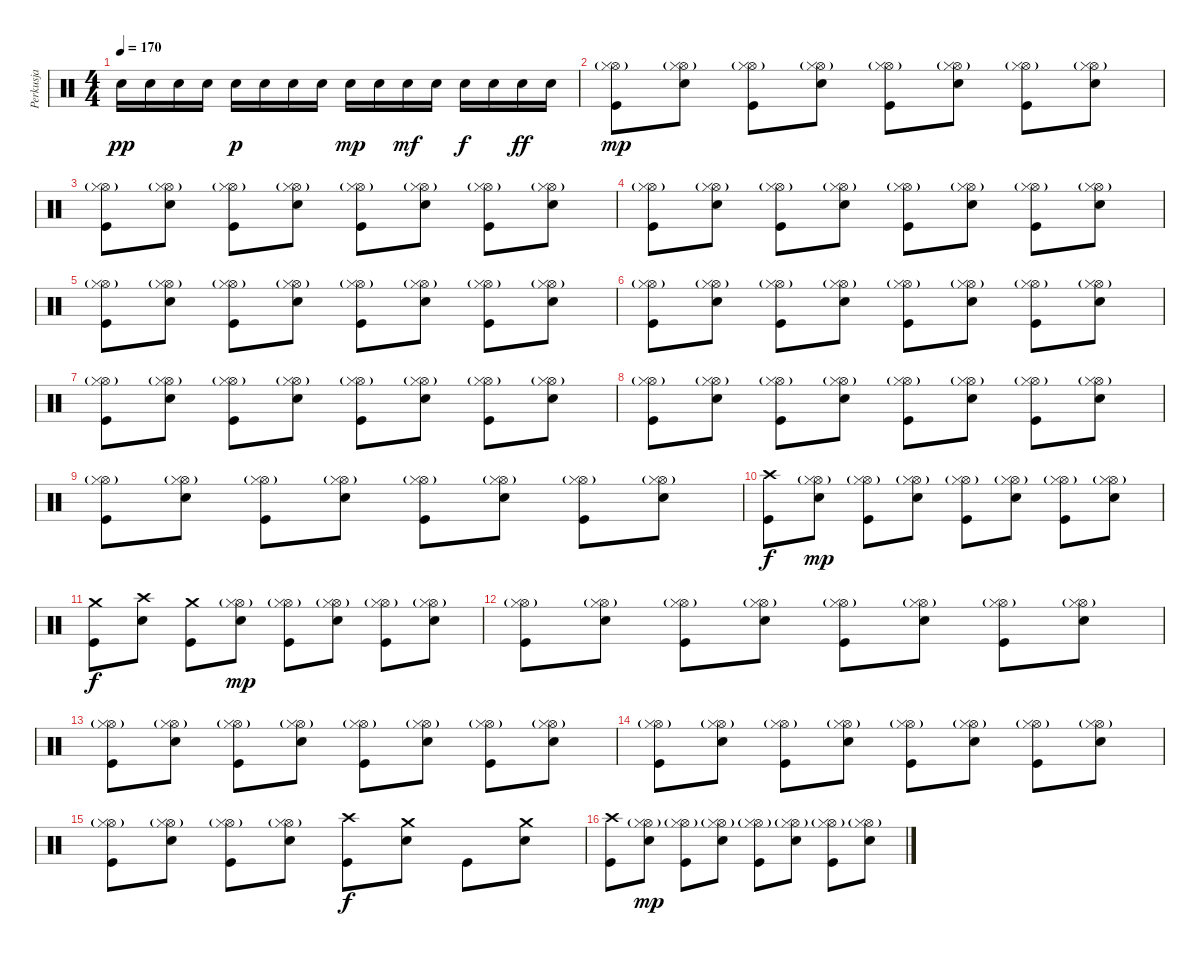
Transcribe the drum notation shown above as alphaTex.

\track ("Perkusja" "Perkusja") {instrument percussion}
\staff {score}
\articulation defaults
\ts (4 4)
\tempo 170
\clef neutral
\ks c "Electric Snare (hit)".16{dy pp} "Electric Snare (hit)".16 "Electric Snare (hit)".16 "Electric Snare (hit)".16 "Electric Snare (hit)".16{dy p} "Electric Snare (hit)".16 "Electric Snare (hit)".16 "Electric Snare (hit)".16 "Electric Snare (hit)".16{dy mp} "Electric Snare (hit)".16 "Electric Snare (hit)".16{dy mf} "Electric Snare (hit)".16 "Electric Snare (hit)".16{dy f} "Electric Snare (hit)".16 "Electric Snare (hit)".16{dy ff} "Electric Snare (hit)".16
|
("Hi-Hat (open)"{g} "Hi-Hat (closed)"{g} "Kick (hit)").8{dy mp} ("Hi-Hat (open)"{g} "Hi-Hat (closed)"{g} "Electric Snare (hit)").8 ("Hi-Hat (open)"{g} "Hi-Hat (closed)"{g} "Kick (hit)").8 ("Hi-Hat (open)"{g} "Hi-Hat (closed)"{g} "Electric Snare (hit)").8 ("Hi-Hat (open)"{g} "Hi-Hat (closed)"{g} "Kick (hit)").8 ("Hi-Hat (open)"{g} "Hi-Hat (closed)"{g} "Electric Snare (hit)").8 ("Hi-Hat (open)"{g} "Hi-Hat (closed)"{g} "Kick (hit)").8 ("Hi-Hat (open)"{g} "Hi-Hat (closed)"{g} "Electric Snare (hit)").8 |
("Hi-Hat (open)"{g} "Hi-Hat (closed)"{g} "Kick (hit)").8 ("Hi-Hat (open)"{g} "Hi-Hat (closed)"{g} "Electric Snare (hit)").8 ("Hi-Hat (open)"{g} "Hi-Hat (closed)"{g} "Kick (hit)").8 ("Hi-Hat (open)"{g} "Hi-Hat (closed)"{g} "Electric Snare (hit)").8 ("Hi-Hat (open)"{g} "Hi-Hat (closed)"{g} "Kick (hit)").8 ("Hi-Hat (open)"{g} "Hi-Hat (closed)"{g} "Electric Snare (hit)").8 ("Hi-Hat (open)"{g} "Hi-Hat (closed)"{g} "Kick (hit)").8 ("Hi-Hat (open)"{g} "Hi-Hat (closed)"{g} "Electric Snare (hit)").8 |
("Hi-Hat (open)"{g} "Hi-Hat (closed)"{g} "Kick (hit)").8 ("Hi-Hat (open)"{g} "Hi-Hat (closed)"{g} "Electric Snare (hit)").8 ("Hi-Hat (open)"{g} "Hi-Hat (closed)"{g} "Kick (hit)").8 ("Hi-Hat (open)"{g} "Hi-Hat (closed)"{g} "Electric Snare (hit)").8 ("Hi-Hat (open)"{g} "Hi-Hat (closed)"{g} "Kick (hit)").8 ("Hi-Hat (open)"{g} "Hi-Hat (closed)"{g} "Electric Snare (hit)").8 ("Hi-Hat (open)"{g} "Hi-Hat (closed)"{g} "Kick (hit)").8 ("Hi-Hat (open)"{g} "Hi-Hat (closed)"{g} "Electric Snare (hit)").8 |
("Hi-Hat (open)"{g} "Hi-Hat (closed)"{g} "Kick (hit)").8 ("Hi-Hat (open)"{g} "Hi-Hat (closed)"{g} "Electric Snare (hit)").8 ("Hi-Hat (open)"{g} "Hi-Hat (closed)"{g} "Kick (hit)").8 ("Hi-Hat (open)"{g} "Hi-Hat (closed)"{g} "Electric Snare (hit)").8 ("Hi-Hat (open)"{g} "Hi-Hat (closed)"{g} "Kick (hit)").8 ("Hi-Hat (open)"{g} "Hi-Hat (closed)"{g} "Electric Snare (hit)").8 ("Hi-Hat (open)"{g} "Hi-Hat (closed)"{g} "Kick (hit)").8 ("Hi-Hat (open)"{g} "Hi-Hat (closed)"{g} "Electric Snare (hit)").8 |
("Hi-Hat (open)"{g} "Hi-Hat (closed)"{g} "Kick (hit)").8 ("Hi-Hat (open)"{g} "Hi-Hat (closed)"{g} "Electric Snare (hit)").8 ("Hi-Hat (open)"{g} "Hi-Hat (closed)"{g} "Kick (hit)").8 ("Hi-Hat (open)"{g} "Hi-Hat (closed)"{g} "Electric Snare (hit)").8 ("Hi-Hat (open)"{g} "Hi-Hat (closed)"{g} "Kick (hit)").8 ("Hi-Hat (open)"{g} "Hi-Hat (closed)"{g} "Electric Snare (hit)").8 ("Hi-Hat (open)"{g} "Hi-Hat (closed)"{g} "Kick (hit)").8 ("Hi-Hat (open)"{g} "Hi-Hat (closed)"{g} "Electric Snare (hit)").8 |
("Hi-Hat (open)"{g} "Hi-Hat (closed)"{g} "Kick (hit)").8 ("Hi-Hat (open)"{g} "Hi-Hat (closed)"{g} "Electric Snare (hit)").8 ("Hi-Hat (open)"{g} "Hi-Hat (closed)"{g} "Kick (hit)").8 ("Hi-Hat (open)"{g} "Hi-Hat (closed)"{g} "Electric Snare (hit)").8 ("Hi-Hat (open)"{g} "Hi-Hat (closed)"{g} "Kick (hit)").8 ("Hi-Hat (open)"{g} "Hi-Hat (closed)"{g} "Electric Snare (hit)").8 ("Hi-Hat (open)"{g} "Hi-Hat (closed)"{g} "Kick (hit)").8 ("Hi-Hat (open)"{g} "Hi-Hat (closed)"{g} "Electric Snare (hit)").8 |
("Hi-Hat (open)"{g} "Hi-Hat (closed)"{g} "Kick (hit)").8 ("Hi-Hat (open)"{g} "Hi-Hat (closed)"{g} "Electric Snare (hit)").8 ("Hi-Hat (open)"{g} "Hi-Hat (closed)"{g} "Kick (hit)").8 ("Hi-Hat (open)"{g} "Hi-Hat (closed)"{g} "Electric Snare (hit)").8 ("Hi-Hat (open)"{g} "Hi-Hat (closed)"{g} "Kick (hit)").8 ("Hi-Hat (open)"{g} "Hi-Hat (closed)"{g} "Electric Snare (hit)").8 ("Hi-Hat (open)"{g} "Hi-Hat (closed)"{g} "Kick (hit)").8 ("Hi-Hat (open)"{g} "Hi-Hat (closed)"{g} "Electric Snare (hit)").8 |
("Hi-Hat (open)"{g} "Hi-Hat (closed)"{g} "Kick (hit)").8 ("Hi-Hat (open)"{g} "Hi-Hat (closed)"{g} "Electric Snare (hit)").8 ("Hi-Hat (open)"{g} "Hi-Hat (closed)"{g} "Kick (hit)").8 ("Hi-Hat (open)"{g} "Hi-Hat (closed)"{g} "Electric Snare (hit)").8 ("Hi-Hat (open)"{g} "Hi-Hat (closed)"{g} "Kick (hit)").8 ("Hi-Hat (open)"{g} "Hi-Hat (closed)"{g} "Electric Snare (hit)").8 ("Hi-Hat (open)"{g} "Hi-Hat (closed)"{g} "Kick (hit)").8 ("Hi-Hat (open)"{g} "Hi-Hat (closed)"{g} "Electric Snare (hit)").8 |
("Crash high (hit)" "Kick (hit)").8{dy f} ("Hi-Hat (open)"{g} "Hi-Hat (closed)"{g} "Electric Snare (hit)").8{dy mp} ("Hi-Hat (open)"{g} "Hi-Hat (closed)"{g} "Kick (hit)").8 ("Hi-Hat (open)"{g} "Hi-Hat (closed)"{g} "Electric Snare (hit)").8 ("Hi-Hat (open)"{g} "Hi-Hat (closed)"{g} "Kick (hit)").8 ("Hi-Hat (open)"{g} "Hi-Hat (closed)"{g} "Electric Snare (hit)").8 ("Hi-Hat (open)"{g} "Hi-Hat (closed)"{g} "Kick (hit)").8 ("Hi-Hat (open)"{g} "Hi-Hat (closed)"{g} "Electric Snare (hit)").8 |
("Crash medium (hit)" "Kick (hit)").8{dy f} ("Crash high (hit)" "Electric Snare (hit)").8 ("Crash medium (hit)" "Kick (hit)").8 ("Hi-Hat (open)"{g} "Hi-Hat (closed)"{g} "Electric Snare (hit)").8{dy mp} ("Hi-Hat (open)"{g} "Hi-Hat (closed)"{g} "Kick (hit)").8 ("Hi-Hat (open)"{g} "Hi-Hat (closed)"{g} "Electric Snare (hit)").8 ("Hi-Hat (open)"{g} "Hi-Hat (closed)"{g} "Kick (hit)").8 ("Hi-Hat (open)"{g} "Hi-Hat (closed)"{g} "Electric Snare (hit)").8 |
("Hi-Hat (open)"{g} "Hi-Hat (closed)"{g} "Kick (hit)").8 ("Hi-Hat (open)"{g} "Hi-Hat (closed)"{g} "Electric Snare (hit)").8 ("Hi-Hat (open)"{g} "Hi-Hat (closed)"{g} "Kick (hit)").8 ("Hi-Hat (open)"{g} "Hi-Hat (closed)"{g} "Electric Snare (hit)").8 ("Hi-Hat (open)"{g} "Hi-Hat (closed)"{g} "Kick (hit)").8 ("Hi-Hat (open)"{g} "Hi-Hat (closed)"{g} "Electric Snare (hit)").8 ("Hi-Hat (open)"{g} "Hi-Hat (closed)"{g} "Kick (hit)").8 ("Hi-Hat (open)"{g} "Hi-Hat (closed)"{g} "Electric Snare (hit)").8 |
("Hi-Hat (open)"{g} "Hi-Hat (closed)"{g} "Kick (hit)").8 ("Hi-Hat (open)"{g} "Hi-Hat (closed)"{g} "Electric Snare (hit)").8 ("Hi-Hat (open)"{g} "Hi-Hat (closed)"{g} "Kick (hit)").8 ("Hi-Hat (open)"{g} "Hi-Hat (closed)"{g} "Electric Snare (hit)").8 ("Hi-Hat (open)"{g} "Hi-Hat (closed)"{g} "Kick (hit)").8 ("Hi-Hat (open)"{g} "Hi-Hat (closed)"{g} "Electric Snare (hit)").8 ("Hi-Hat (open)"{g} "Hi-Hat (closed)"{g} "Kick (hit)").8 ("Hi-Hat (open)"{g} "Hi-Hat (closed)"{g} "Electric Snare (hit)").8 |
("Hi-Hat (open)"{g} "Hi-Hat (closed)"{g} "Kick (hit)").8 ("Hi-Hat (open)"{g} "Hi-Hat (closed)"{g} "Electric Snare (hit)").8 ("Hi-Hat (open)"{g} "Hi-Hat (closed)"{g} "Kick (hit)").8 ("Hi-Hat (open)"{g} "Hi-Hat (closed)"{g} "Electric Snare (hit)").8 ("Hi-Hat (open)"{g} "Hi-Hat (closed)"{g} "Kick (hit)").8 ("Hi-Hat (open)"{g} "Hi-Hat (closed)"{g} "Electric Snare (hit)").8 ("Hi-Hat (open)"{g} "Hi-Hat (closed)"{g} "Kick (hit)").8 ("Hi-Hat (open)"{g} "Hi-Hat (closed)"{g} "Electric Snare (hit)").8 |
("Hi-Hat (open)"{g} "Hi-Hat (closed)"{g} "Kick (hit)").8 ("Hi-Hat (open)"{g} "Hi-Hat (closed)"{g} "Electric Snare (hit)").8 ("Hi-Hat (open)"{g} "Hi-Hat (closed)"{g} "Kick (hit)").8 ("Hi-Hat (open)"{g} "Hi-Hat (closed)"{g} "Electric Snare (hit)").8 ("Crash high (hit)" "Kick (hit)").8{dy f} ("Crash medium (hit)" "Electric Snare (hit)").8 "Kick (hit)".8 ("Crash medium (hit)" "Electric Snare (hit)").8 |
("Crash high (hit)" "Kick (hit)").8 ("Hi-Hat (open)"{g} "Hi-Hat (closed)"{g} "Electric Snare (hit)").8{dy mp} ("Hi-Hat (open)"{g} "Hi-Hat (closed)"{g} "Kick (hit)").8 ("Hi-Hat (open)"{g} "Hi-Hat (closed)"{g} "Electric Snare (hit)").8 ("Hi-Hat (open)"{g} "Hi-Hat (closed)"{g} "Kick (hit)").8 ("Hi-Hat (open)"{g} "Hi-Hat (closed)"{g} "Electric Snare (hit)").8 ("Hi-Hat (open)"{g} "Hi-Hat (closed)"{g} "Kick (hit)").8 ("Hi-Hat (open)"{g} "Hi-Hat (closed)"{g} "Electric Snare (hit)").8
